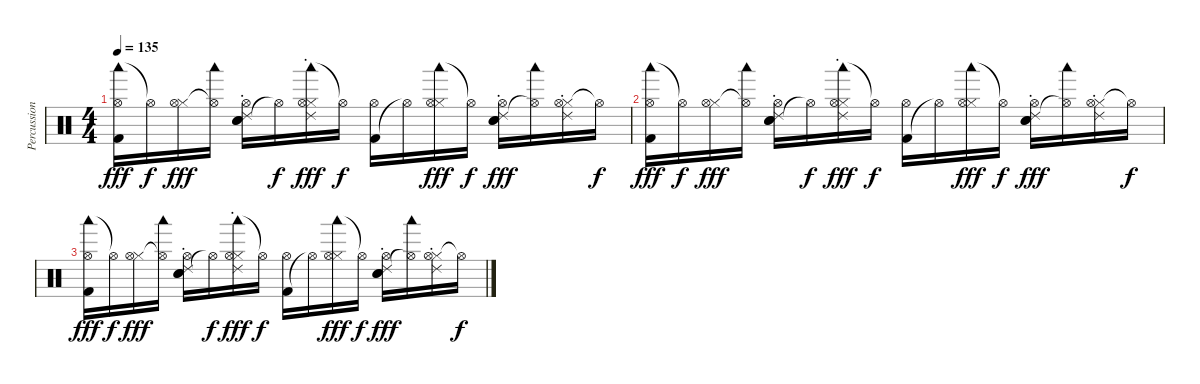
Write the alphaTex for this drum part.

\track ("Percussion" "Percussion") {instrument percussion}
\staff {score}
\articulation defaults
\ts (4 4)
\tempo 135
\clef neutral
\ks c
("Woodblock low (hit)" "Kick (hit) 2" "Hi-Hat (open)").16{dy fff} "Hi-Hat (open)"{t}.16{dy f} ("Hi-Hat (closed)" "Hi-Hat (open)").16{dy fff} ("Woodblock low (hit)" "Hi-Hat (open)"{t}).16 ("Snare (hit) 2" "Ride (choke) 2" "Hand Clap (hit)" "Hi-Hat (open)").16 "Hi-Hat (open)"{t}.16{dy f} ("Woodblock low (hit)" "Hi-Hat (closed)" "Ride (choke) 2" "Hi-Hat (open)").16{dy fff} "Hi-Hat (open)"{t}.16{dy f} ("Kick (hit) 2" "Hi-Hat (open)").16 "Hi-Hat (open)"{t}.16 ("Woodblock low (hit)" "Hi-Hat (closed)" "Hi-Hat (open)").16{dy fff} "Hi-Hat (open)"{t}.16{dy f} ("Snare (hit) 2" "Ride (choke) 2" "Hand Clap (hit)" "Hi-Hat (open)").16{dy fff} ("Woodblock low (hit)" "Hi-Hat (open)"{t}).16 ("Hi-Hat (closed)" "Ride (choke) 2" "Hi-Hat (open)").16 "Hi-Hat (open)"{t}.16{dy f} |
("Woodblock low (hit)" "Kick (hit) 2" "Hi-Hat (open)").16{dy fff} "Hi-Hat (open)"{t}.16{dy f} ("Hi-Hat (closed)" "Hi-Hat (open)").16{dy fff} ("Woodblock low (hit)" "Hi-Hat (open)"{t}).16 ("Snare (hit) 2" "Ride (choke) 2" "Hand Clap (hit)" "Hi-Hat (open)").16 "Hi-Hat (open)"{t}.16{dy f} ("Woodblock low (hit)" "Hi-Hat (closed)" "Ride (choke) 2" "Hi-Hat (open)").16{dy fff} "Hi-Hat (open)"{t}.16{dy f} ("Kick (hit) 2" "Hi-Hat (open)").16 "Hi-Hat (open)"{t}.16 ("Woodblock low (hit)" "Hi-Hat (closed)" "Hi-Hat (open)").16{dy fff} "Hi-Hat (open)"{t}.16{dy f} ("Snare (hit) 2" "Ride (choke) 2" "Hand Clap (hit)" "Hi-Hat (open)").16{dy fff} ("Woodblock low (hit)" "Hi-Hat (open)"{t}).16 ("Hi-Hat (closed)" "Ride (choke) 2" "Hi-Hat (open)").16 "Hi-Hat (open)"{t}.16{dy f} |
("Woodblock low (hit)" "Kick (hit) 2" "Hi-Hat (open)").16{dy fff} "Hi-Hat (open)"{t}.16{dy f} ("Hi-Hat (closed)" "Hi-Hat (open)").16{dy fff} ("Woodblock low (hit)" "Hi-Hat (open)"{t}).16 ("Snare (hit) 2" "Ride (choke) 2" "Hand Clap (hit)" "Hi-Hat (open)").16 "Hi-Hat (open)"{t}.16{dy f} ("Woodblock low (hit)" "Hi-Hat (closed)" "Ride (choke) 2" "Hi-Hat (open)").16{dy fff} "Hi-Hat (open)"{t}.16{dy f} ("Kick (hit) 2" "Hi-Hat (open)").16 "Hi-Hat (open)"{t}.16 ("Woodblock low (hit)" "Hi-Hat (closed)" "Hi-Hat (open)").16{dy fff} "Hi-Hat (open)"{t}.16{dy f} ("Snare (hit) 2" "Ride (choke) 2" "Hand Clap (hit)" "Hi-Hat (open)").16{dy fff} ("Woodblock low (hit)" "Hi-Hat (open)"{t}).16 ("Hi-Hat (closed)" "Ride (choke) 2" "Hi-Hat (open)").16 "Hi-Hat (open)"{t}.16{dy f}
